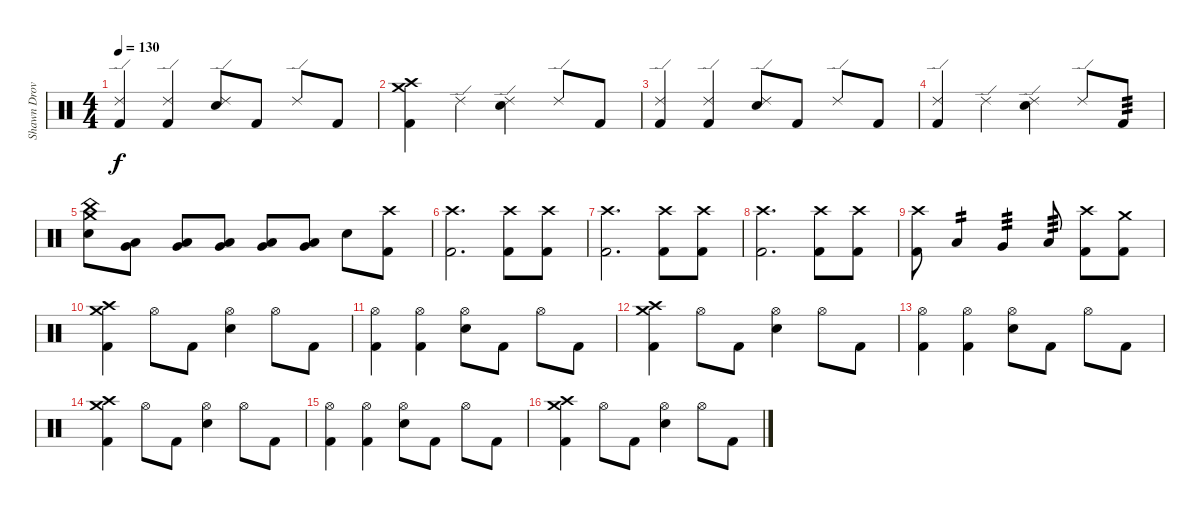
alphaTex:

\track ("Shawn Drover" "Shawn Drov") {instrument percussion}
\staff {score}
\articulation defaults
\ts (4 4)
\tempo 130
\clef neutral
\ks c
("Ride (edge) 2" "Kick (hit) 2").4{dy f} ("Ride (edge) 2" "Kick (hit) 2").4 ("Ride (edge) 2" "Snare (hit) 2").8 "Kick (hit) 2".8 "Ride (edge) 2".8 "Kick (hit) 2".8 |
("Crash high (hit)" "Crash medium (hit)" "Kick (hit) 2").4 "Ride (edge) 2".4 ("Ride (edge) 2" "Snare (hit) 2").4 "Ride (edge) 2".8 "Kick (hit) 2".8 |
("Ride (edge) 2" "Kick (hit) 2").4 ("Ride (edge) 2" "Kick (hit) 2").4 ("Ride (edge) 2" "Snare (hit) 2").8 "Kick (hit) 2".8 "Ride (edge) 2".8 "Kick (hit) 2".8 |
("Ride (edge) 2" "Kick (hit) 2").4 "Ride (edge) 2".4 ("Ride (edge) 2" "Snare (hit) 2").4 "Ride (edge) 2".8 "Kick (hit) 2".8{tp 3} |
("China (hit)" "Snare (hit) 2" "Crash medium (hit)").8 ("Low Floor Tom (hit)" "Very Low Tom (hit)").8 ("Low Floor Tom (hit)" "Very Low Tom (hit)").8 ("Low Floor Tom (hit)" "Very Low Tom (hit)").8 ("Low Tom (hit)" "Very Low Tom (hit)").8 ("Low Tom (hit)" "Very Low Tom (hit)").8 "Snare (hit) 2".8 ("Crash high (hit)" "Kick (hit) 2").8 |
("Crash high (hit)" "Kick (hit) 2").2{d} ("Crash high (hit)" "Kick (hit) 2").8 ("Crash high (hit)" "Kick (hit) 2").8 |
("Crash high (hit)" "Kick (hit) 2").2{d} ("Crash high (hit)" "Kick (hit) 2").8 ("Crash high (hit)" "Kick (hit) 2").8 |
("Crash high (hit)" "Kick (hit) 2").2{d} ("Crash high (hit)" "Kick (hit) 2").8 ("Crash high (hit)" "Kick (hit) 2").8 |
("Crash high (hit)" "Kick (hit) 2").8 "Low Tom (hit)".4{tp 2} "Very Low Tom (hit)".4{tp 3} "Low Floor Tom (hit)".8{tp 3} ("Crash high (hit)" "Kick (hit) 2").8 ("Crash medium (hit)" "Kick (hit) 2").8 |
("Crash high (hit)" "Crash medium (hit)" "Kick (hit) 2").4 "Hi-Hat (open)".8 "Kick (hit) 2".8 ("Hi-Hat (open)" "Snare (hit) 2").4 "Hi-Hat (open)".8 "Kick (hit) 2".8 |
("Hi-Hat (open)" "Kick (hit) 2").4 ("Hi-Hat (open)" "Kick (hit) 2").4 ("Hi-Hat (open)" "Snare (hit) 2").8 "Kick (hit) 2".8 "Hi-Hat (open)".8 "Kick (hit) 2".8 |
("Crash high (hit)" "Crash medium (hit)" "Kick (hit) 2").4 "Hi-Hat (open)".8 "Kick (hit) 2".8 ("Hi-Hat (open)" "Snare (hit) 2").4 "Hi-Hat (open)".8 "Kick (hit) 2".8 |
("Hi-Hat (open)" "Kick (hit) 2").4 ("Hi-Hat (open)" "Kick (hit) 2").4 ("Hi-Hat (open)" "Snare (hit) 2").8 "Kick (hit) 2".8 "Hi-Hat (open)".8 "Kick (hit) 2".8 |
("Crash high (hit)" "Crash medium (hit)" "Kick (hit) 2").4 "Hi-Hat (open)".8 "Kick (hit) 2".8 ("Hi-Hat (open)" "Snare (hit) 2").4 "Hi-Hat (open)".8 "Kick (hit) 2".8 |
("Hi-Hat (open)" "Kick (hit) 2").4 ("Hi-Hat (open)" "Kick (hit) 2").4 ("Hi-Hat (open)" "Snare (hit) 2").8 "Kick (hit) 2".8 "Hi-Hat (open)".8 "Kick (hit) 2".8 |
("Crash high (hit)" "Crash medium (hit)" "Kick (hit) 2").4 "Hi-Hat (open)".8 "Kick (hit) 2".8 ("Hi-Hat (open)" "Snare (hit) 2").4 "Hi-Hat (open)".8 "Kick (hit) 2".8
